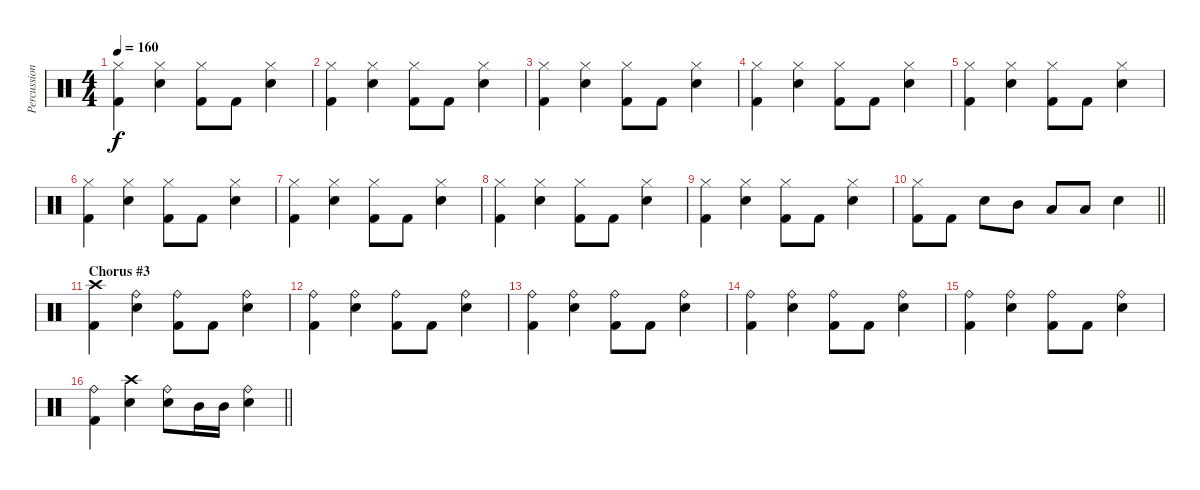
\track ("Percussion" "Percussion") {instrument percussion}
\staff {score}
\articulation defaults
\ts (4 4)
\tempo 160
\clef neutral
\ks c
("Hi-Hat (closed)" "Kick (hit) 2").4{dy f} ("Hi-Hat (closed)" "Electric Snare (hit)").4 ("Hi-Hat (closed)" "Kick (hit) 2").8 "Kick (hit) 2".8 ("Hi-Hat (closed)" "Electric Snare (hit)").4 |
("Hi-Hat (closed)" "Kick (hit) 2").4 ("Hi-Hat (closed)" "Electric Snare (hit)").4 ("Hi-Hat (closed)" "Kick (hit) 2").8 "Kick (hit) 2".8 ("Hi-Hat (closed)" "Electric Snare (hit)").4 |
("Hi-Hat (closed)" "Kick (hit) 2").4 ("Hi-Hat (closed)" "Electric Snare (hit)").4 ("Hi-Hat (closed)" "Kick (hit) 2").8 "Kick (hit) 2".8 ("Hi-Hat (closed)" "Electric Snare (hit)").4 |
("Hi-Hat (closed)" "Kick (hit) 2").4 ("Hi-Hat (closed)" "Electric Snare (hit)").4 ("Hi-Hat (closed)" "Kick (hit) 2").8 "Kick (hit) 2".8 ("Hi-Hat (closed)" "Electric Snare (hit)").4 |
("Hi-Hat (closed)" "Kick (hit) 2").4 ("Hi-Hat (closed)" "Electric Snare (hit)").4 ("Hi-Hat (closed)" "Kick (hit) 2").8 "Kick (hit) 2".8 ("Hi-Hat (closed)" "Electric Snare (hit)").4 |
("Hi-Hat (closed)" "Kick (hit) 2").4 ("Hi-Hat (closed)" "Electric Snare (hit)").4 ("Hi-Hat (closed)" "Kick (hit) 2").8 "Kick (hit) 2".8 ("Hi-Hat (closed)" "Electric Snare (hit)").4 |
("Hi-Hat (closed)" "Kick (hit) 2").4 ("Hi-Hat (closed)" "Electric Snare (hit)").4 ("Hi-Hat (closed)" "Kick (hit) 2").8 "Kick (hit) 2".8 ("Hi-Hat (closed)" "Electric Snare (hit)").4 |
("Hi-Hat (closed)" "Kick (hit) 2").4 ("Hi-Hat (closed)" "Electric Snare (hit)").4 ("Hi-Hat (closed)" "Kick (hit) 2").8 "Kick (hit) 2".8 ("Hi-Hat (closed)" "Electric Snare (hit)").4 |
("Hi-Hat (closed)" "Kick (hit) 2").4 ("Hi-Hat (closed)" "Electric Snare (hit)").4 ("Hi-Hat (closed)" "Kick (hit) 2").8 "Kick (hit) 2".8 ("Hi-Hat (closed)" "Electric Snare (hit)").4 |
\barLineRight lightlight
("Hi-Hat (closed)" "Kick (hit) 2").8 "Kick (hit) 2".8 "Electric Snare (hit)".8 "Mid Tom (hit)".8 "Low Tom (hit)".8 "Low Tom (hit)".8 "Electric Snare (hit)".4 |
\section ("" "Chorus #3")
("Crash high (hit)" "Kick (hit) 2").4 ("Ride (bell)" "Electric Snare (hit)").4 ("Ride (bell)" "Kick (hit) 2").8 "Kick (hit) 2".8 ("Ride (bell)" "Electric Snare (hit)").4 |
("Ride (bell)" "Kick (hit) 2").4 ("Ride (bell)" "Electric Snare (hit)").4 ("Ride (bell)" "Kick (hit) 2").8 "Kick (hit) 2".8 ("Ride (bell)" "Electric Snare (hit)").4 |
("Ride (bell)" "Kick (hit) 2").4 ("Ride (bell)" "Electric Snare (hit)").4 ("Ride (bell)" "Kick (hit) 2").8 "Kick (hit) 2".8 ("Ride (bell)" "Electric Snare (hit)").4 |
("Ride (bell)" "Kick (hit) 2").4 ("Ride (bell)" "Electric Snare (hit)").4 ("Ride (bell)" "Kick (hit) 2").8 "Kick (hit) 2".8 ("Ride (bell)" "Electric Snare (hit)").4 |
("Ride (bell)" "Kick (hit) 2").4 ("Ride (bell)" "Electric Snare (hit)").4 ("Ride (bell)" "Kick (hit) 2").8 "Kick (hit) 2".8 ("Ride (bell)" "Electric Snare (hit)").4 |
\barLineRight lightlight
("Ride (bell)" "Kick (hit) 2").4 ("Crash high (hit)" "Electric Snare (hit)").4 ("Ride (bell)" "Electric Snare (hit)").8 "Mid Tom (hit)".16 "Mid Tom (hit)".16 ("Ride (bell)" "Electric Snare (hit)").4
